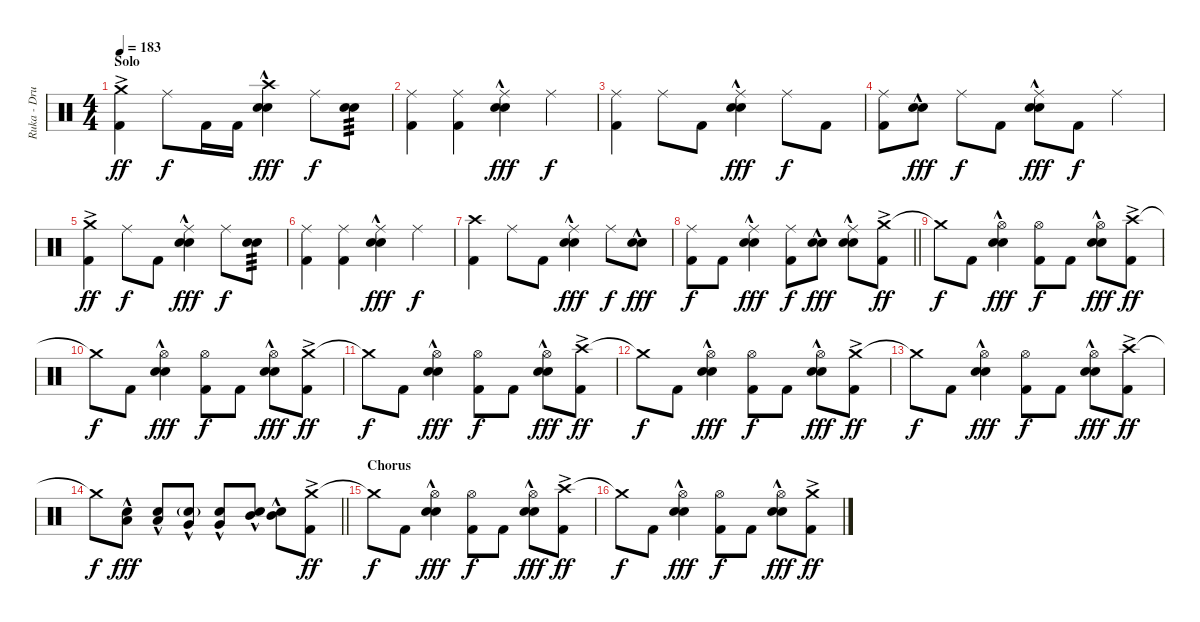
\track ("Ruka - Drums" "Ruka - Dru") {instrument percussion}
\staff {score}
\articulation defaults
\ts (4 4)
\section ("" "Solo")
\tempo 183
\clef neutral
\ks c
("Crash medium (hit)"{ac} "Kick (hit) 2").4{dy ff} "Ride (middle)".8{dy f} "Kick (hit) 2".16 "Kick (hit) 2".16 ("Crash high (hit)" "Electric Snare (hit)"{hac} "Snare (hit) 2"{hac}).4{dy fff} "Ride (middle)".8{dy f} ("Electric Snare (hit)" "Snare (hit) 2").8{tp 3} |
("Ride (middle)" "Kick (hit) 2").4 ("Ride (middle)" "Kick (hit) 2").4 ("Ride (middle)" "Electric Snare (hit)"{hac} "Snare (hit) 2"{hac}).4{dy fff} "Ride (middle)".4{dy f} |
("Ride (middle)" "Kick (hit) 2").4 "Ride (middle)".8 "Kick (hit) 2".8 ("Ride (middle)" "Electric Snare (hit)"{hac} "Snare (hit) 2"{hac}).4{dy fff} "Ride (middle)".8{dy f} "Kick (hit) 2".8 |
("Ride (middle)" "Kick (hit) 2").8 ("Electric Snare (hit)"{hac} "Snare (hit) 2"{hac}).8{dy fff} "Ride (middle)".8{dy f} "Kick (hit) 2".8 ("Ride (middle)" "Electric Snare (hit)"{hac} "Snare (hit) 2"{hac}).8{dy fff} "Kick (hit) 2".8{dy f} "Ride (middle)".4 |
("Crash medium (hit)"{ac} "Kick (hit) 2").4{dy ff} "Ride (middle)".8{dy f} "Kick (hit) 2".8 ("Ride (middle)" "Electric Snare (hit)"{hac} "Snare (hit) 2"{hac}).4{dy fff} "Ride (middle)".8{dy f} ("Electric Snare (hit)" "Snare (hit) 2").8{tp 3} |
("Ride (middle)" "Kick (hit) 2").4 ("Ride (middle)" "Kick (hit) 2").4 ("Ride (middle)" "Electric Snare (hit)"{hac} "Snare (hit) 2"{hac}).4{dy fff} "Ride (middle)".4{dy f} |
("Crash high (hit)" "Kick (hit) 2").4 "Ride (middle)".8 "Kick (hit) 2".8 ("Ride (middle)" "Electric Snare (hit)"{hac} "Snare (hit) 2"{hac}).4{dy fff} "Ride (middle)".8{dy f} ("Electric Snare (hit)"{hac} "Snare (hit) 2"{hac}).8{dy fff} |
\barLineRight lightlight
("Ride (middle)" "Kick (hit) 2").8{dy f} "Kick (hit) 2".8 ("Ride (middle)" "Electric Snare (hit)"{hac} "Snare (hit) 2"{hac}).4{dy fff} ("Ride (middle)" "Kick (hit) 2").8{dy f} ("Electric Snare (hit)"{hac} "Snare (hit) 2"{hac}).8{dy fff} ("Ride (middle)" "Electric Snare (hit)"{hac} "Snare (hit) 2"{hac}).8 ("Crash medium (hit)"{ac} "Kick (hit) 2").8{dy ff} |
\section ("" "")
"Crash medium (hit)"{t}.8{dy f} "Kick (hit) 2".8 ("Hi-Hat (open)" "Electric Snare (hit)"{hac} "Snare (hit) 2"{hac}).4{dy fff} ("Hi-Hat (open)" "Kick (hit) 2").8{dy f} "Kick (hit) 2".8 ("Hi-Hat (open)" "Electric Snare (hit)"{hac} "Snare (hit) 2"{hac}).8{dy fff} ("Crash high (hit)"{ac} "Kick (hit) 2").8{dy ff} |
"Crash medium (hit)"{t}.8{dy f} "Kick (hit) 2".8 ("Hi-Hat (open)" "Electric Snare (hit)"{hac} "Snare (hit) 2"{hac}).4{dy fff} ("Hi-Hat (open)" "Kick (hit) 2").8{dy f} "Kick (hit) 2".8 ("Hi-Hat (open)" "Electric Snare (hit)"{hac} "Snare (hit) 2"{hac}).8{dy fff} ("Crash medium (hit)"{ac} "Kick (hit) 2").8{dy ff} |
"Crash medium (hit)"{t}.8{dy f} "Kick (hit) 2".8 ("Hi-Hat (open)" "Electric Snare (hit)"{hac} "Snare (hit) 2"{hac}).4{dy fff} ("Hi-Hat (open)" "Kick (hit) 2").8{dy f} "Kick (hit) 2".8 ("Hi-Hat (open)" "Electric Snare (hit)"{hac} "Snare (hit) 2"{hac}).8{dy fff} ("Crash high (hit)"{ac} "Kick (hit) 2").8{dy ff} |
"Crash medium (hit)"{t}.8{dy f} "Kick (hit) 2".8 ("Hi-Hat (open)" "Electric Snare (hit)"{hac} "Snare (hit) 2"{hac}).4{dy fff} ("Hi-Hat (open)" "Kick (hit) 2").8{dy f} "Kick (hit) 2".8 ("Hi-Hat (open)" "Electric Snare (hit)"{hac} "Snare (hit) 2"{hac}).8{dy fff} ("Crash medium (hit)"{ac} "Kick (hit) 2").8{dy ff} |
"Crash medium (hit)"{t}.8{dy f} "Kick (hit) 2".8 ("Hi-Hat (open)" "Electric Snare (hit)"{hac} "Snare (hit) 2"{hac}).4{dy fff} ("Hi-Hat (open)" "Kick (hit) 2").8{dy f} "Kick (hit) 2".8 ("Hi-Hat (open)" "Electric Snare (hit)"{hac} "Snare (hit) 2"{hac}).8{dy fff} ("Crash high (hit)"{ac} "Kick (hit) 2").8{dy ff} |
\barLineRight lightlight "Crash medium (hit)"{t}.8{dy f}
("Electric Snare (hit)" "Low Tom (hit)"{hac}).8{dy fff} ("Electric Snare (hit)"{hac} "Low Tom (hit)"{hac}).8 ("Electric Snare (hit)"{g} "Very Low Tom (hit)"{hac}).8 ("Electric Snare (hit)"{hac} "Very Low Tom (hit)"{hac}).8 ("Electric Snare (hit)"{hac} "Mid Tom (hit)"{hac}).8 ("Electric Snare (hit)"{hac} "Mid Tom (hit)"{hac}).8 ("Crash medium (hit)"{ac} "Kick (hit) 2").8{dy ff} |
\section ("" "Chorus")
"Crash medium (hit)"{t}.8{dy f} "Kick (hit) 2".8 ("Hi-Hat (open)" "Electric Snare (hit)"{hac} "Snare (hit) 2"{hac}).4{dy fff} ("Hi-Hat (open)" "Kick (hit) 2").8{dy f} "Kick (hit) 2".8 ("Hi-Hat (open)" "Electric Snare (hit)"{hac} "Snare (hit) 2"{hac}).8{dy fff} ("Crash high (hit)"{ac} "Kick (hit) 2").8{dy ff} |
"Crash medium (hit)"{t}.8{dy f} "Kick (hit) 2".8 ("Hi-Hat (open)" "Electric Snare (hit)"{hac} "Snare (hit) 2"{hac}).4{dy fff} ("Hi-Hat (open)" "Kick (hit) 2").8{dy f} "Kick (hit) 2".8 ("Hi-Hat (open)" "Electric Snare (hit)"{hac} "Snare (hit) 2"{hac}).8{dy fff} ("Crash medium (hit)"{ac} "Kick (hit) 2").8{dy ff}
